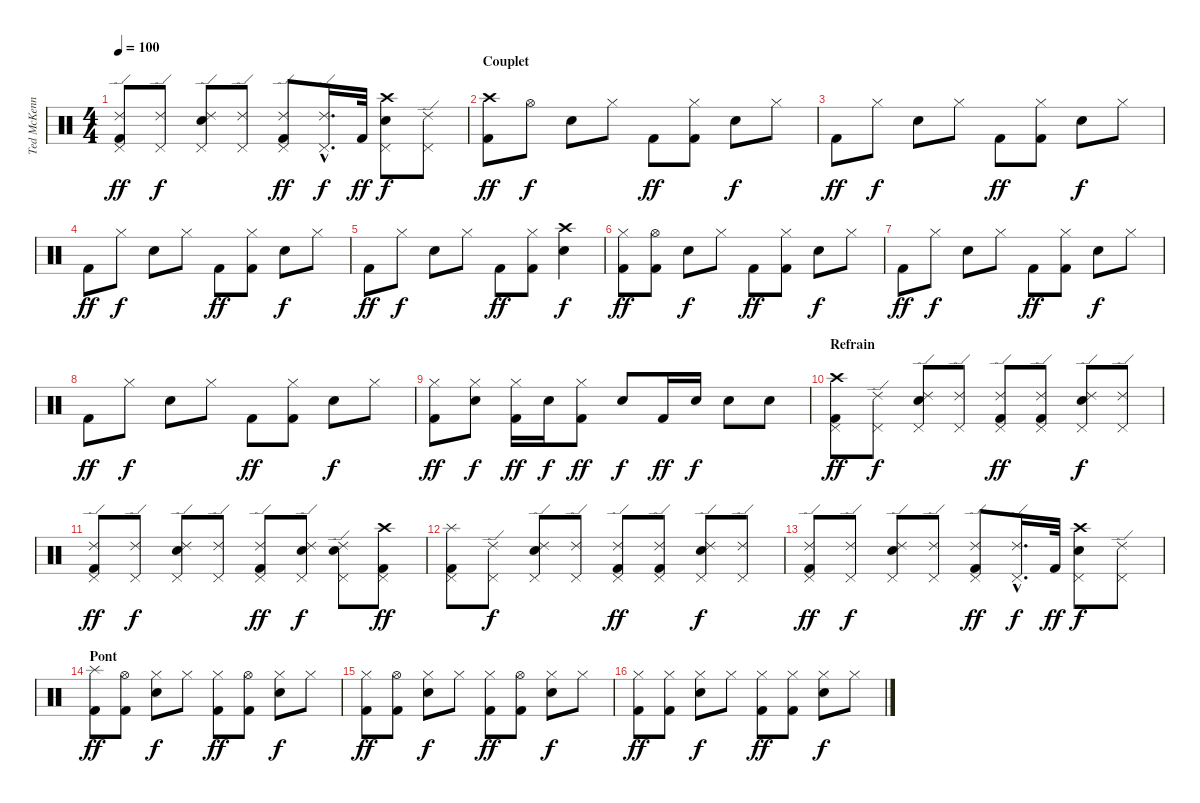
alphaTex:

\track ("Ted McKenna" "Ted McKenn") {instrument percussion}
\staff {score}
\articulation defaults
\ts (4 4)
\tempo 100
\clef neutral
\ks c
("Ride (edge) 2" "Pedal Hi-Hat (hit)" "Kick (hit) 2").8{dy ff} ("Ride (edge) 2" "Pedal Hi-Hat (hit)").8{dy f} ("Ride (edge) 2" "Snare (hit) 2" "Pedal Hi-Hat (hit)").8 ("Ride (edge) 2" "Pedal Hi-Hat (hit)").8 ("Ride (edge) 2" "Pedal Hi-Hat (hit)" "Kick (hit) 2").8{dy ff} ("Ride (edge) 2"{hac} "Pedal Hi-Hat (hit)"{hac}).16{d dy f} "Kick (hit) 2".32{dy ff} ("Crash high (hit)" "Snare (hit) 2" "Pedal Hi-Hat (hit)").8{dy f} ("Ride (edge) 2" "Pedal Hi-Hat (hit)").8 |
\section ("" "Couplet")
("Crash high (hit)" "Kick (hit) 2").8{dy ff} "Hi-Hat (open)".8{dy f} "Snare (hit) 2".8 "Hi-Hat (closed)".8 "Kick (hit) 2".8{dy ff} ("Hi-Hat (closed)" "Kick (hit) 2").8 "Snare (hit) 2".8{dy f} "Hi-Hat (closed)".8 |
"Kick (hit) 2".8{dy ff} "Hi-Hat (closed)".8{dy f} "Snare (hit) 2".8 "Hi-Hat (closed)".8 "Kick (hit) 2".8{dy ff} ("Hi-Hat (closed)" "Kick (hit) 2").8 "Snare (hit) 2".8{dy f} "Hi-Hat (closed)".8 |
"Kick (hit) 2".8{dy ff} "Hi-Hat (closed)".8{dy f} "Snare (hit) 2".8 "Hi-Hat (closed)".8 "Kick (hit) 2".8{dy ff} ("Hi-Hat (closed)" "Kick (hit) 2").8 "Snare (hit) 2".8{dy f} "Hi-Hat (closed)".8 |
"Kick (hit) 2".8{dy ff} "Hi-Hat (closed)".8{dy f} "Snare (hit) 2".8 "Hi-Hat (closed)".8 "Kick (hit) 2".8{dy ff} ("Hi-Hat (closed)" "Kick (hit) 2").8 ("Crash high (hit)" "Snare (hit) 2").4{dy f} |
("Hi-Hat (closed)" "Kick (hit) 2").8{dy ff} ("Hi-Hat (open)" "Kick (hit) 2").8 "Snare (hit) 2".8{dy f} "Hi-Hat (closed)".8 "Kick (hit) 2".8{dy ff} ("Hi-Hat (closed)" "Kick (hit) 2").8 "Snare (hit) 2".8{dy f} "Hi-Hat (closed)".8 |
"Kick (hit) 2".8{dy ff} "Hi-Hat (closed)".8{dy f} "Snare (hit) 2".8 "Hi-Hat (closed)".8 "Kick (hit) 2".8{dy ff} ("Hi-Hat (closed)" "Kick (hit) 2").8 "Snare (hit) 2".8{dy f} "Hi-Hat (closed)".8 |
"Kick (hit) 2".8{dy ff} "Hi-Hat (closed)".8{dy f} "Snare (hit) 2".8 "Hi-Hat (closed)".8 "Kick (hit) 2".8{dy ff} ("Hi-Hat (closed)" "Kick (hit) 2").8 "Snare (hit) 2".8{dy f} "Hi-Hat (closed)".8 |
("Hi-Hat (closed)" "Kick (hit) 2").8{dy ff} ("Hi-Hat (closed)" "Snare (hit) 2").8{dy f} ("Hi-Hat (closed)" "Kick (hit) 2").16{dy ff} "Snare (hit) 2".16{dy f} ("Hi-Hat (closed)" "Kick (hit) 2").8{dy ff} "Snare (hit) 2".8{dy f} "Kick (hit) 2".16{dy ff} "Snare (hit) 2".16{dy f} "Snare (hit) 2".8 "Snare (hit) 2".8 |
\section ("" "Refrain")
("Crash high (hit)" "Pedal Hi-Hat (hit)" "Kick (hit) 2").8{dy ff} ("Ride (edge) 2" "Pedal Hi-Hat (hit)").8{dy f} ("Ride (edge) 2" "Snare (hit) 2" "Pedal Hi-Hat (hit)").8 ("Ride (edge) 2" "Pedal Hi-Hat (hit)").8 ("Ride (edge) 2" "Pedal Hi-Hat (hit)" "Kick (hit) 2").8{dy ff} ("Ride (edge) 2" "Pedal Hi-Hat (hit)" "Kick (hit) 2").8 ("Ride (edge) 2" "Snare (hit) 2" "Pedal Hi-Hat (hit)").8{dy f} ("Ride (edge) 2" "Pedal Hi-Hat (hit)").8 |
("Ride (edge) 2" "Pedal Hi-Hat (hit)" "Kick (hit) 2").8{dy ff} ("Ride (edge) 2" "Pedal Hi-Hat (hit)").8{dy f} ("Ride (edge) 2" "Snare (hit) 2" "Pedal Hi-Hat (hit)").8 ("Ride (edge) 2" "Pedal Hi-Hat (hit)").8 ("Ride (edge) 2" "Pedal Hi-Hat (hit)" "Kick (hit) 2").8{dy ff} ("Ride (edge) 2" "Snare (hit) 2" "Pedal Hi-Hat (hit)").8{dy f} ("Ride (edge) 2" "Snare (hit) 2" "Pedal Hi-Hat (hit)").8 ("Crash high (hit)" "Pedal Hi-Hat (hit)" "Kick (hit) 2").8{dy ff} |
("Splash (hit)" "Pedal Hi-Hat (hit)" "Kick (hit) 2").8 ("Ride (edge) 2" "Pedal Hi-Hat (hit)").8{dy f} ("Ride (edge) 2" "Snare (hit) 2" "Pedal Hi-Hat (hit)").8 ("Ride (edge) 2" "Pedal Hi-Hat (hit)").8 ("Ride (edge) 2" "Pedal Hi-Hat (hit)" "Kick (hit) 2").8{dy ff} ("Ride (edge) 2" "Pedal Hi-Hat (hit)" "Kick (hit) 2").8 ("Ride (edge) 2" "Snare (hit) 2" "Pedal Hi-Hat (hit)").8{dy f} ("Ride (edge) 2" "Pedal Hi-Hat (hit)").8 |
("Ride (edge) 2" "Pedal Hi-Hat (hit)" "Kick (hit) 2").8{dy ff} ("Ride (edge) 2" "Pedal Hi-Hat (hit)").8{dy f} ("Ride (edge) 2" "Snare (hit) 2" "Pedal Hi-Hat (hit)").8 ("Ride (edge) 2" "Pedal Hi-Hat (hit)").8 ("Ride (edge) 2" "Pedal Hi-Hat (hit)" "Kick (hit) 2").8{dy ff} ("Ride (edge) 2"{hac} "Pedal Hi-Hat (hit)"{hac}).16{d dy f} "Kick (hit) 2".32{dy ff} ("Crash high (hit)" "Snare (hit) 2" "Pedal Hi-Hat (hit)").8{dy f} ("Ride (edge) 2" "Pedal Hi-Hat (hit)").8 |
\section ("" "Pont")
("Splash (hit)" "Kick (hit) 2").8{dy ff} ("Hi-Hat (open)" "Kick (hit) 2").8 ("Hi-Hat (closed)" "Snare (hit) 2").8{dy f} "Hi-Hat (closed)".8 ("Hi-Hat (closed)" "Kick (hit) 2").8{dy ff} ("Hi-Hat (open)" "Kick (hit) 2").8 ("Hi-Hat (closed)" "Snare (hit) 2").8{dy f} "Hi-Hat (closed)".8 |
("Hi-Hat (closed)" "Kick (hit) 2").8{dy ff} ("Hi-Hat (open)" "Kick (hit) 2").8 ("Hi-Hat (closed)" "Snare (hit) 2").8{dy f} "Hi-Hat (closed)".8 ("Hi-Hat (closed)" "Kick (hit) 2").8{dy ff} ("Hi-Hat (open)" "Kick (hit) 2").8 ("Hi-Hat (closed)" "Snare (hit) 2").8{dy f} "Hi-Hat (closed)".8 |
("Hi-Hat (closed)" "Kick (hit) 2").8{dy ff} ("Hi-Hat (closed)" "Kick (hit) 2").8 ("Hi-Hat (closed)" "Snare (hit) 2").8{dy f} "Hi-Hat (closed)".8 ("Hi-Hat (closed)" "Kick (hit) 2").8{dy ff} ("Hi-Hat (closed)" "Kick (hit) 2").8 ("Hi-Hat (closed)" "Snare (hit) 2").8{dy f} "Hi-Hat (closed)".8
